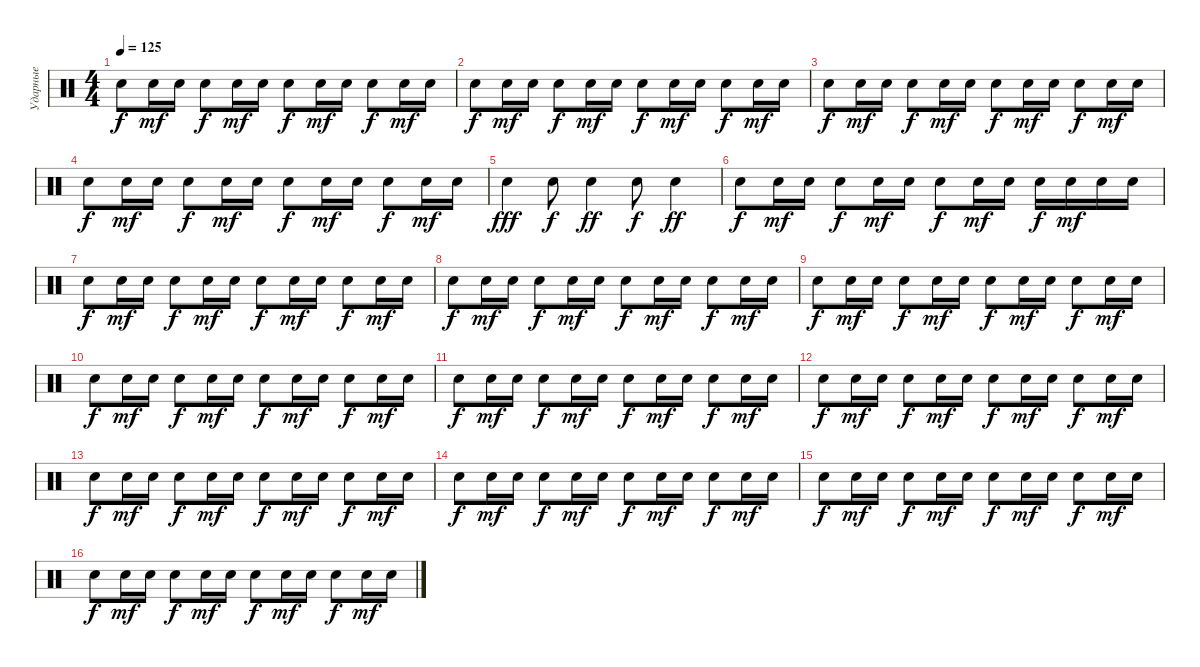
\track ("Ударные" "Ударные") {instrument percussion}
\staff {score}
\articulation defaults
\ts (4 4)
\tempo 125
\clef neutral
\ks c "Electric Snare (hit)".8{dy f} "Electric Snare (hit)".16{dy mf} "Electric Snare (hit)".16 "Electric Snare (hit)".8{dy f} "Electric Snare (hit)".16{dy mf} "Electric Snare (hit)".16 "Electric Snare (hit)".8{dy f} "Electric Snare (hit)".16{dy mf} "Electric Snare (hit)".16 "Electric Snare (hit)".8{dy f} "Electric Snare (hit)".16{dy mf} "Electric Snare (hit)".16
|
"Electric Snare (hit)".8{dy f} "Electric Snare (hit)".16{dy mf} "Electric Snare (hit)".16 "Electric Snare (hit)".8{dy f} "Electric Snare (hit)".16{dy mf} "Electric Snare (hit)".16 "Electric Snare (hit)".8{dy f} "Electric Snare (hit)".16{dy mf} "Electric Snare (hit)".16 "Electric Snare (hit)".8{dy f} "Electric Snare (hit)".16{dy mf} "Electric Snare (hit)".16 |
"Electric Snare (hit)".8{dy f} "Electric Snare (hit)".16{dy mf} "Electric Snare (hit)".16 "Electric Snare (hit)".8{dy f} "Electric Snare (hit)".16{dy mf} "Electric Snare (hit)".16 "Electric Snare (hit)".8{dy f} "Electric Snare (hit)".16{dy mf} "Electric Snare (hit)".16 "Electric Snare (hit)".8{dy f} "Electric Snare (hit)".16{dy mf} "Electric Snare (hit)".16 |
"Electric Snare (hit)".8{dy f} "Electric Snare (hit)".16{dy mf} "Electric Snare (hit)".16 "Electric Snare (hit)".8{dy f} "Electric Snare (hit)".16{dy mf} "Electric Snare (hit)".16 "Electric Snare (hit)".8{dy f} "Electric Snare (hit)".16{dy mf} "Electric Snare (hit)".16 "Electric Snare (hit)".8{dy f} "Electric Snare (hit)".16{dy mf} "Electric Snare (hit)".16 |
"Electric Snare (hit)".4{dy fff} "Electric Snare (hit)".8{dy f} "Electric Snare (hit)".4{dy ff} "Electric Snare (hit)".8{dy f} "Electric Snare (hit)".4{dy ff} |
"Electric Snare (hit)".8{dy f} "Electric Snare (hit)".16{dy mf} "Electric Snare (hit)".16 "Electric Snare (hit)".8{dy f} "Electric Snare (hit)".16{dy mf} "Electric Snare (hit)".16 "Electric Snare (hit)".8{dy f} "Electric Snare (hit)".16{dy mf} "Electric Snare (hit)".16 "Electric Snare (hit)".16{dy f} "Electric Snare (hit)".16{dy mf} "Electric Snare (hit)".16 "Electric Snare (hit)".16 |
"Electric Snare (hit)".8{dy f} "Electric Snare (hit)".16{dy mf} "Electric Snare (hit)".16 "Electric Snare (hit)".8{dy f} "Electric Snare (hit)".16{dy mf} "Electric Snare (hit)".16 "Electric Snare (hit)".8{dy f} "Electric Snare (hit)".16{dy mf} "Electric Snare (hit)".16 "Electric Snare (hit)".8{dy f} "Electric Snare (hit)".16{dy mf} "Electric Snare (hit)".16 |
"Electric Snare (hit)".8{dy f} "Electric Snare (hit)".16{dy mf} "Electric Snare (hit)".16 "Electric Snare (hit)".8{dy f} "Electric Snare (hit)".16{dy mf} "Electric Snare (hit)".16 "Electric Snare (hit)".8{dy f} "Electric Snare (hit)".16{dy mf} "Electric Snare (hit)".16 "Electric Snare (hit)".8{dy f} "Electric Snare (hit)".16{dy mf} "Electric Snare (hit)".16 |
"Electric Snare (hit)".8{dy f} "Electric Snare (hit)".16{dy mf} "Electric Snare (hit)".16 "Electric Snare (hit)".8{dy f} "Electric Snare (hit)".16{dy mf} "Electric Snare (hit)".16 "Electric Snare (hit)".8{dy f} "Electric Snare (hit)".16{dy mf} "Electric Snare (hit)".16 "Electric Snare (hit)".8{dy f} "Electric Snare (hit)".16{dy mf} "Electric Snare (hit)".16 |
"Electric Snare (hit)".8{dy f} "Electric Snare (hit)".16{dy mf} "Electric Snare (hit)".16 "Electric Snare (hit)".8{dy f} "Electric Snare (hit)".16{dy mf} "Electric Snare (hit)".16 "Electric Snare (hit)".8{dy f} "Electric Snare (hit)".16{dy mf} "Electric Snare (hit)".16 "Electric Snare (hit)".8{dy f} "Electric Snare (hit)".16{dy mf} "Electric Snare (hit)".16 |
"Electric Snare (hit)".8{dy f} "Electric Snare (hit)".16{dy mf} "Electric Snare (hit)".16 "Electric Snare (hit)".8{dy f} "Electric Snare (hit)".16{dy mf} "Electric Snare (hit)".16 "Electric Snare (hit)".8{dy f} "Electric Snare (hit)".16{dy mf} "Electric Snare (hit)".16 "Electric Snare (hit)".8{dy f} "Electric Snare (hit)".16{dy mf} "Electric Snare (hit)".16 |
"Electric Snare (hit)".8{dy f} "Electric Snare (hit)".16{dy mf} "Electric Snare (hit)".16 "Electric Snare (hit)".8{dy f} "Electric Snare (hit)".16{dy mf} "Electric Snare (hit)".16 "Electric Snare (hit)".8{dy f} "Electric Snare (hit)".16{dy mf} "Electric Snare (hit)".16 "Electric Snare (hit)".8{dy f} "Electric Snare (hit)".16{dy mf} "Electric Snare (hit)".16 |
"Electric Snare (hit)".8{dy f} "Electric Snare (hit)".16{dy mf} "Electric Snare (hit)".16 "Electric Snare (hit)".8{dy f} "Electric Snare (hit)".16{dy mf} "Electric Snare (hit)".16 "Electric Snare (hit)".8{dy f} "Electric Snare (hit)".16{dy mf} "Electric Snare (hit)".16 "Electric Snare (hit)".8{dy f} "Electric Snare (hit)".16{dy mf} "Electric Snare (hit)".16 |
"Electric Snare (hit)".8{dy f} "Electric Snare (hit)".16{dy mf} "Electric Snare (hit)".16 "Electric Snare (hit)".8{dy f} "Electric Snare (hit)".16{dy mf} "Electric Snare (hit)".16 "Electric Snare (hit)".8{dy f} "Electric Snare (hit)".16{dy mf} "Electric Snare (hit)".16 "Electric Snare (hit)".8{dy f} "Electric Snare (hit)".16{dy mf} "Electric Snare (hit)".16 |
"Electric Snare (hit)".8{dy f} "Electric Snare (hit)".16{dy mf} "Electric Snare (hit)".16 "Electric Snare (hit)".8{dy f} "Electric Snare (hit)".16{dy mf} "Electric Snare (hit)".16 "Electric Snare (hit)".8{dy f} "Electric Snare (hit)".16{dy mf} "Electric Snare (hit)".16 "Electric Snare (hit)".8{dy f} "Electric Snare (hit)".16{dy mf} "Electric Snare (hit)".16 |
"Electric Snare (hit)".8{dy f} "Electric Snare (hit)".16{dy mf} "Electric Snare (hit)".16 "Electric Snare (hit)".8{dy f} "Electric Snare (hit)".16{dy mf} "Electric Snare (hit)".16 "Electric Snare (hit)".8{dy f} "Electric Snare (hit)".16{dy mf} "Electric Snare (hit)".16 "Electric Snare (hit)".8{dy f} "Electric Snare (hit)".16{dy mf} "Electric Snare (hit)".16
